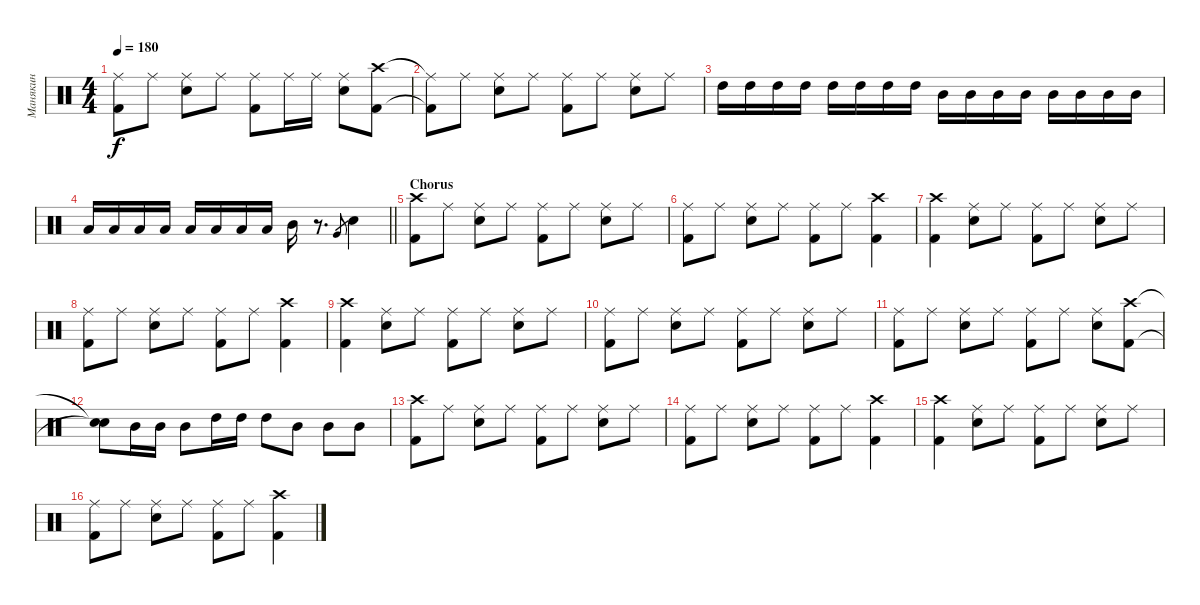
\track ("Манякин" "Манякин") {instrument percussion}
\staff {score}
\articulation defaults
\ts (4 4)
\tempo 180
\clef neutral
\ks c
("Kick (hit) 2"{t} "Ride (middle)"{t}).8{dy f} "Ride (middle)".8 ("Snare (hit) 2" "Ride (middle)").8 "Ride (middle)".8 ("Kick (hit) 2" "Ride (middle)").8 "Ride (middle)".16 "Ride (middle)".16 ("Snare (hit) 2" "Ride (middle)").8 ("Kick (hit) 2" "Crash high (hit)").8 |
("Kick (hit) 2"{t} "Ride (middle)"{t}).8 "Ride (middle)".8 ("Snare (hit) 2" "Ride (middle)").8 "Ride (middle)".8 ("Kick (hit) 2" "Ride (middle)").8 "Ride (middle)".8 ("Snare (hit) 2" "Ride (middle)").8 "Ride (middle)".8 |
"High Tom (hit)".16 "High Tom (hit)".16 "High Tom (hit)".16 "High Tom (hit)".16 "High Tom (hit)".16 "High Tom (hit)".16 "High Tom (hit)".16 "High Tom (hit)".16 "Mid Tom (hit)".16 "Mid Tom (hit)".16 "Mid Tom (hit)".16 "Mid Tom (hit)".16 "Mid Tom (hit)".16 "Mid Tom (hit)".16 "Mid Tom (hit)".16 "Mid Tom (hit)".16 |
\barLineRight lightlight "Low Tom (hit)".16 "Low Tom (hit)".16 "Low Tom (hit)".16 "Low Tom (hit)".16 "Low Tom (hit)".16 "Low Tom (hit)".16 "Low Tom (hit)".16 "Low Tom (hit)".16 "Mid Tom (hit)".16
r.8{d} "Very Low Tom (hit)".8{gr} "Snare (hit) 2".4 |
\section ("" "Chorus")
("Kick (hit) 2" "Crash high (hit)").8 "Ride (middle)".8 ("Snare (hit) 2" "Ride (middle)").8 "Ride (middle)".8 ("Kick (hit) 2" "Ride (middle)").8 "Ride (middle)".8 ("Snare (hit) 2" "Ride (middle)").8 "Ride (middle)".8 |
("Kick (hit) 2" "Ride (middle)").8 "Ride (middle)".8 ("Snare (hit) 2" "Ride (middle)").8 "Ride (middle)".8 ("Kick (hit) 2" "Ride (middle)").8 "Ride (middle)".8 ("Kick (hit) 2" "Crash high (hit)").4 |
("Kick (hit) 2" "Crash high (hit)").4 ("Snare (hit) 2" "Ride (middle)").8 "Ride (middle)".8 ("Kick (hit) 2" "Ride (middle)").8 "Ride (middle)".8 ("Snare (hit) 2" "Ride (middle)").8 "Ride (middle)".8 |
("Kick (hit) 2" "Ride (middle)").8 "Ride (middle)".8 ("Snare (hit) 2" "Ride (middle)").8 "Ride (middle)".8 ("Kick (hit) 2" "Ride (middle)").8 "Ride (middle)".8 ("Kick (hit) 2" "Crash high (hit)").4 |
("Kick (hit) 2" "Crash high (hit)").4 ("Snare (hit) 2" "Ride (middle)").8 "Ride (middle)".8 ("Kick (hit) 2" "Ride (middle)").8 "Ride (middle)".8 ("Snare (hit) 2" "Ride (middle)").8 "Ride (middle)".8 |
("Kick (hit) 2" "Ride (middle)").8 "Ride (middle)".8 ("Snare (hit) 2" "Ride (middle)").8 "Ride (middle)".8 ("Kick (hit) 2" "Ride (middle)").8 "Ride (middle)".8 ("Snare (hit) 2" "Ride (middle)").8 "Ride (middle)".8 |
("Kick (hit) 2" "Ride (middle)").8 "Ride (middle)".8 ("Snare (hit) 2" "Ride (middle)").8 "Ride (middle)".8 ("Kick (hit) 2" "Ride (middle)").8 "Ride (middle)".8 ("Snare (hit) 2" "Ride (middle)").8 ("Kick (hit) 2" "Crash high (hit)").8 |
("Snare (hit)"{t} "Snare (hit)"{t}).8 "Mid Tom (hit)".16 "Mid Tom (hit)".16 "Mid Tom (hit)".8 "High Tom (hit)".16 "High Tom (hit)".16 "High Tom (hit)".8 "Mid Tom (hit)".8 "Mid Tom (hit)".8 "Mid Tom (hit)".8 |
("Kick (hit) 2" "Crash high (hit)").8 "Ride (middle)".8 ("Snare (hit) 2" "Ride (middle)").8 "Ride (middle)".8 ("Kick (hit) 2" "Ride (middle)").8 "Ride (middle)".8 ("Snare (hit) 2" "Ride (middle)").8 "Ride (middle)".8 |
("Kick (hit) 2" "Ride (middle)").8 "Ride (middle)".8 ("Snare (hit) 2" "Ride (middle)").8 "Ride (middle)".8 ("Kick (hit) 2" "Ride (middle)").8 "Ride (middle)".8 ("Kick (hit) 2" "Crash high (hit)").4 |
("Kick (hit) 2" "Crash high (hit)").4 ("Snare (hit) 2" "Ride (middle)").8 "Ride (middle)".8 ("Kick (hit) 2" "Ride (middle)").8 "Ride (middle)".8 ("Snare (hit) 2" "Ride (middle)").8 "Ride (middle)".8 |
("Kick (hit) 2" "Ride (middle)").8 "Ride (middle)".8 ("Snare (hit) 2" "Ride (middle)").8 "Ride (middle)".8 ("Kick (hit) 2" "Ride (middle)").8 "Ride (middle)".8 ("Kick (hit) 2" "Crash high (hit)").4
